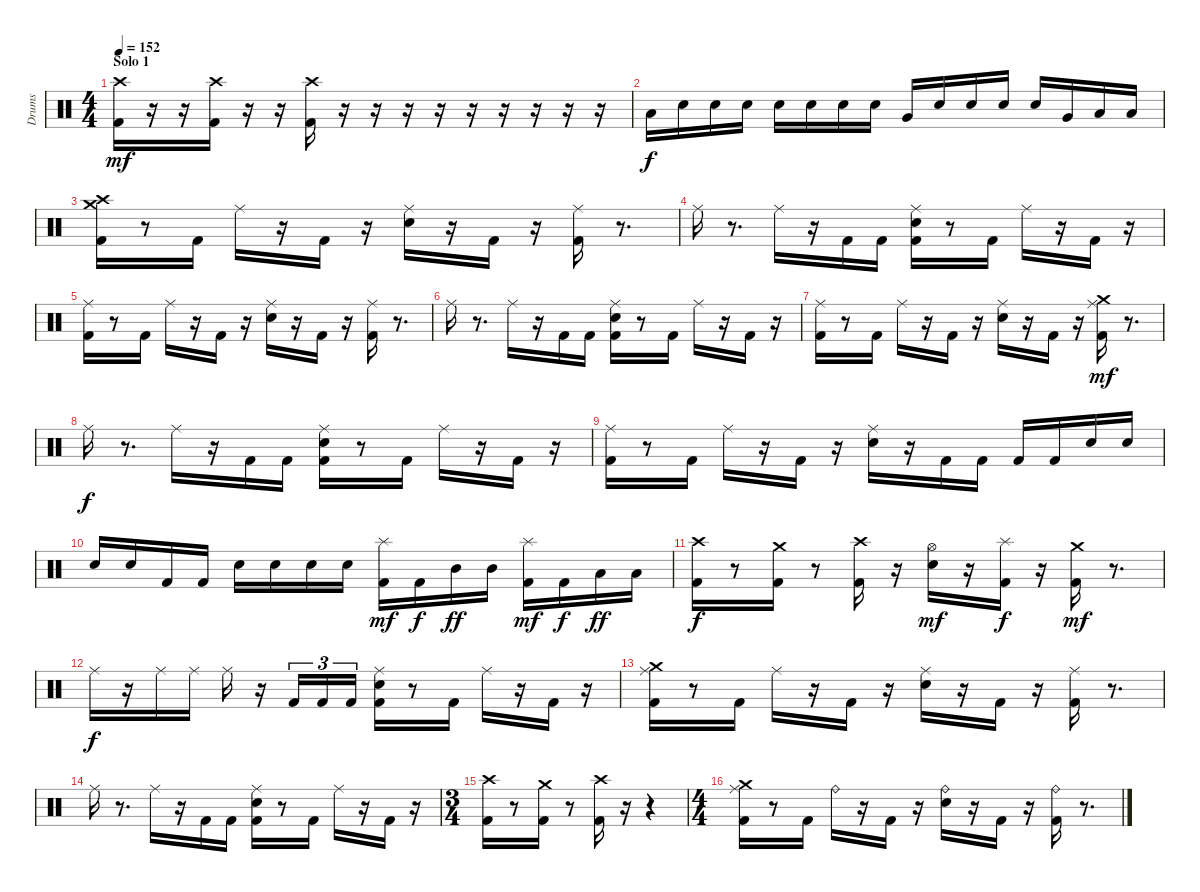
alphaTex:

\track ("Drums" "Drums") {instrument percussion}
\staff {score}
\articulation defaults
\ts (4 4)
\section ("" "Solo 1")
\tempo 152
\clef neutral
\ks c
("Crash high (hit)" "Kick (hit) 2").16{dy mf} r.16 r.16 ("Crash high (hit)" "Kick (hit) 2").16 r.16 r.16 ("Crash high (hit)" "Kick (hit) 2").16 r.16 r.16 r.16 r.16 r.16 r.16 r.16 r.16 r.16 |
"Low Tom (hit)".16{dy f} "Snare (hit) 2".16 "Snare (hit) 2".16 "Snare (hit) 2".16 "Snare (hit) 2".16 "Snare (hit) 2".16 "Snare (hit) 2".16 "Snare (hit) 2".16 "Very Low Tom (hit)".16 "Snare (hit) 2".16 "Snare (hit) 2".16 "Snare (hit) 2".16 "Snare (hit) 2".16 "Very Low Tom (hit)".16 "Low Floor Tom (hit)".16 "Low Floor Tom (hit)".16 |
("Crash medium (hit)" "Crash high (hit)" "Kick (hit) 2").16 r.8 "Kick (hit) 2".16 "Ride (middle)".16 r.16 "Kick (hit) 2".16 r.16 ("Ride (middle)" "Snare (hit) 2").16 r.16 "Kick (hit) 2".16 r.16 ("Ride (middle)" "Kick (hit) 2").16 r.8{d} |
"Ride (middle)".16 r.8{d} "Ride (middle)".16 r.16 "Kick (hit) 2".16 "Kick (hit) 2".16 ("Ride (middle)" "Snare (hit) 2" "Kick (hit) 2").16 r.8 "Kick (hit) 2".16 "Ride (middle)".16 r.16 "Kick (hit) 2".16 r.16 |
("Ride (middle)" "Kick (hit) 2").16 r.8 "Kick (hit) 2".16 "Ride (middle)".16 r.16 "Kick (hit) 2".16 r.16 ("Ride (middle)" "Snare (hit) 2").16 r.16 "Kick (hit) 2".16 r.16 ("Ride (middle)" "Kick (hit) 2").16 r.8{d} |
"Ride (middle)".16 r.8{d} "Ride (middle)".16 r.16 "Kick (hit) 2".16 "Kick (hit) 2".16 ("Ride (middle)" "Snare (hit) 2" "Kick (hit) 2").16 r.8 "Kick (hit) 2".16 "Ride (middle)".16 r.16 "Kick (hit) 2".16 r.16 |
("Ride (middle)" "Kick (hit) 2").16 r.8 "Kick (hit) 2".16 "Ride (middle)".16 r.16 "Kick (hit) 2".16 r.16 ("Ride (middle)" "Snare (hit) 2").16 r.16 "Kick (hit) 2".16 r.16 ("Crash medium (hit)" "Ride (middle)" "Kick (hit) 2").16{dy mf} r.8{d} |
"Ride (middle)".16{dy f} r.8{d} "Ride (middle)".16 r.16 "Kick (hit) 2".16 "Kick (hit) 2".16 ("Ride (middle)" "Snare (hit) 2" "Kick (hit) 2").16 r.8 "Kick (hit) 2".16 "Ride (middle)".16 r.16 "Kick (hit) 2".16 r.16 |
("Ride (middle)" "Kick (hit) 2").16 r.8 "Kick (hit) 2".16 "Ride (middle)".16 r.16 "Kick (hit) 2".16 r.16 ("Ride (middle)" "Snare (hit) 2").16 r.16 "Kick (hit) 2".16 "Kick (hit) 2".16 "Kick (hit) 2".16 "Kick (hit) 2".16 "Snare (hit) 2".16 "Snare (hit) 2".16 |
"Snare (hit) 2".16 "Snare (hit) 2".16 "Kick (hit) 2".16 "Kick (hit) 2".16 "Snare (hit) 2".16 "Snare (hit) 2".16 "Snare (hit) 2".16 "Snare (hit) 2".16 ("Splash (hit)" "Kick (hit) 2").16{dy mf} "Kick (hit) 2".16{dy f} "Mid Tom (hit)".16{dy ff} "Mid Tom (hit)".16 ("Splash (hit)" "Kick (hit) 2").16{dy mf} "Kick (hit) 2".16{dy f} "Low Tom (hit)".16{dy ff} "Low Tom (hit)".16 |
("Crash high (hit)" "Kick (hit) 2").16{dy f} r.8 ("Crash medium (hit)" "Kick (hit) 2").16 r.8 ("Crash high (hit)" "Kick (hit) 2").16 r.16 ("Hi-Hat (open)" "Snare (hit) 2").16{dy mf} r.16 ("Splash (hit)" "Kick (hit) 2").16{dy f} r.16 ("Crash medium (hit)" "Kick (hit) 2").16{dy mf} r.8{d} |
"Ride (middle)".16{dy f} r.16 "Ride (middle)".16 "Ride (middle)".16 "Ride (middle)".16 r.16 "Kick (hit) 2".16{tu (3 2)} "Kick (hit) 2".16{tu (3 2)} "Kick (hit) 2".16{tu (3 2)} ("Ride (middle)" "Snare (hit) 2" "Kick (hit) 2").16 r.8 "Kick (hit) 2".16 "Ride (middle)".16 r.16 "Kick (hit) 2".16 r.16 |
("Crash medium (hit)" "Ride (middle)" "Kick (hit) 2").16 r.8 "Kick (hit) 2".16 "Ride (middle)".16 r.16 "Kick (hit) 2".16 r.16 ("Ride (middle)" "Snare (hit) 2").16 r.16 "Kick (hit) 2".16 r.16 ("Ride (middle)" "Kick (hit) 2").16 r.8{d} |
"Ride (middle)".16 r.8{d} "Ride (middle)".16 r.16 "Kick (hit) 2".16 "Kick (hit) 2".16 ("Ride (middle)" "Snare (hit) 2" "Kick (hit) 2").16 r.8 "Kick (hit) 2".16 "Ride (middle)".16 r.16 "Kick (hit) 2".16 r.16 |
\ts (3 4)
("Crash high (hit)" "Kick (hit) 2").16 r.8 ("Crash medium (hit)" "Kick (hit) 2").16 r.8 ("Crash high (hit)" "Kick (hit) 2").16 r.16 r.4 |
\ts (4 4)
("Crash medium (hit)" "Ride (middle)" "Kick (hit) 2").16 r.8 "Kick (hit) 2".16 "Ride (bell)".16 r.16 "Kick (hit) 2".16 r.16 ("Ride (bell)" "Snare (hit) 2").16 r.16 "Kick (hit) 2".16 r.16 ("Ride (bell)" "Kick (hit) 2").16 r.8{d}
